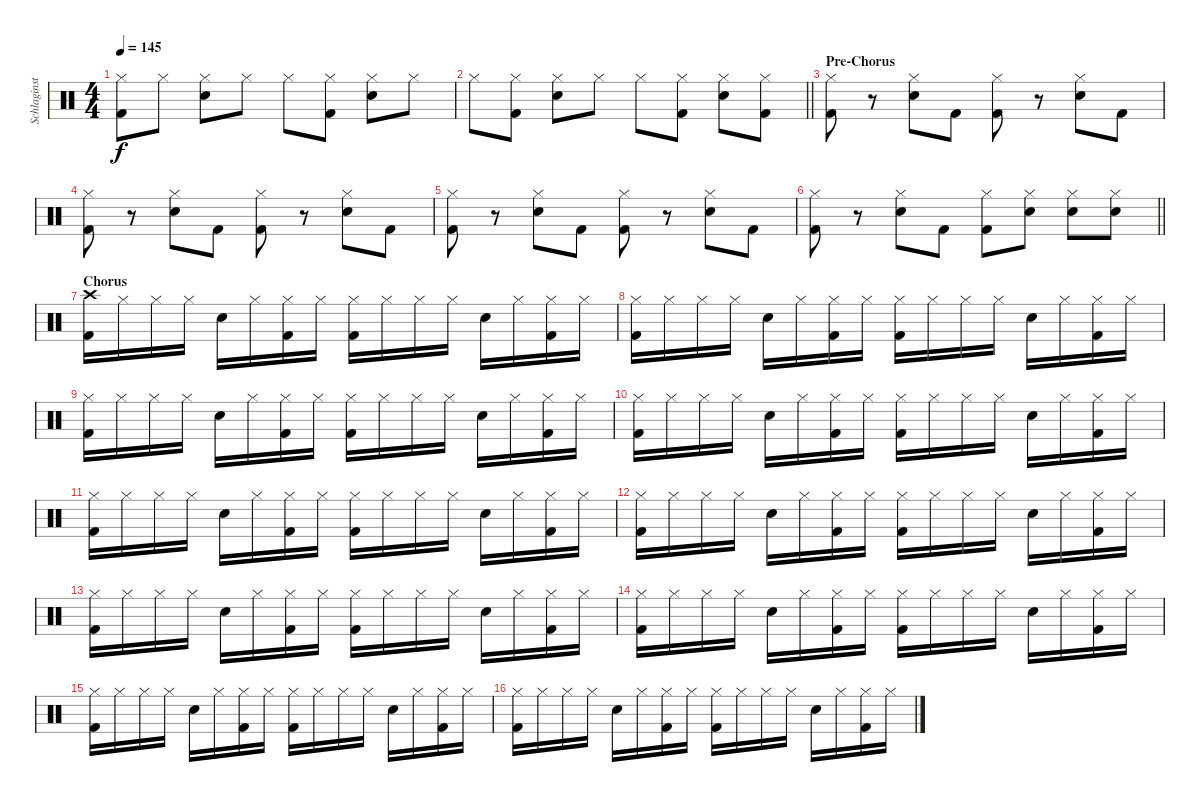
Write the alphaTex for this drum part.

\track ("Schlaginstrumente - Auswahl" "Schlaginst") {instrument percussion}
\staff {score}
\articulation defaults
\ts (4 4)
\tempo 145
\clef neutral
\ks c
("Hi-Hat (closed)" "Kick (hit) 2").8{dy f} "Hi-Hat (closed)".8 ("Hi-Hat (closed)" "Electric Snare (hit)").8 "Hi-Hat (closed)".8 "Hi-Hat (closed)".8 ("Hi-Hat (closed)" "Kick (hit) 2").8 ("Hi-Hat (closed)" "Electric Snare (hit)").8 "Hi-Hat (closed)".8 |
\barLineRight lightlight "Hi-Hat (closed)".8
("Hi-Hat (closed)" "Kick (hit) 2").8 ("Hi-Hat (closed)" "Electric Snare (hit)").8 "Hi-Hat (closed)".8 "Hi-Hat (closed)".8 ("Hi-Hat (closed)" "Kick (hit) 2").8 ("Hi-Hat (closed)" "Electric Snare (hit)").8 ("Hi-Hat (closed)" "Kick (hit) 2").8 |
\section ("" "Pre-Chorus")
("Hi-Hat (closed)" "Kick (hit) 2").8 r.8 ("Hi-Hat (closed)" "Electric Snare (hit)").8 "Kick (hit) 2".8 ("Hi-Hat (closed)" "Kick (hit) 2").8 r.8 ("Hi-Hat (closed)" "Electric Snare (hit)").8 "Kick (hit) 2".8 |
("Hi-Hat (closed)" "Kick (hit) 2").8 r.8 ("Hi-Hat (closed)" "Electric Snare (hit)").8 "Kick (hit) 2".8 ("Hi-Hat (closed)" "Kick (hit) 2").8 r.8 ("Hi-Hat (closed)" "Electric Snare (hit)").8 "Kick (hit) 2".8 |
("Hi-Hat (closed)" "Kick (hit) 2").8 r.8 ("Hi-Hat (closed)" "Electric Snare (hit)").8 "Kick (hit) 2".8 ("Hi-Hat (closed)" "Kick (hit) 2").8 r.8 ("Hi-Hat (closed)" "Electric Snare (hit)").8 "Kick (hit) 2".8 |
\barLineRight lightlight
("Hi-Hat (closed)" "Kick (hit) 2").8 r.8 ("Hi-Hat (closed)" "Electric Snare (hit)").8 "Kick (hit) 2".8 ("Hi-Hat (closed)" "Kick (hit) 2").8 ("Hi-Hat (closed)" "Electric Snare (hit)").8 ("Hi-Hat (closed)" "Electric Snare (hit)").8 ("Hi-Hat (closed)" "Electric Snare (hit)").8 |
\section ("" "Chorus")
("Crash high (hit)" "Kick (hit) 2").16 "Hi-Hat (closed)".16 "Hi-Hat (closed)".16 "Hi-Hat (closed)".16 "Electric Snare (hit)".16 "Hi-Hat (closed)".16 ("Hi-Hat (closed)" "Kick (hit) 2").16 "Hi-Hat (closed)".16 ("Hi-Hat (closed)" "Kick (hit) 2").16 "Hi-Hat (closed)".16 "Hi-Hat (closed)".16 "Hi-Hat (closed)".16 "Electric Snare (hit)".16 "Hi-Hat (closed)".16 ("Hi-Hat (closed)" "Kick (hit) 2").16 "Hi-Hat (closed)".16 |
("Hi-Hat (closed)" "Kick (hit) 2").16 "Hi-Hat (closed)".16 "Hi-Hat (closed)".16 "Hi-Hat (closed)".16 "Electric Snare (hit)".16 "Hi-Hat (closed)".16 ("Hi-Hat (closed)" "Kick (hit) 2").16 "Hi-Hat (closed)".16 ("Hi-Hat (closed)" "Kick (hit) 2").16 "Hi-Hat (closed)".16 "Hi-Hat (closed)".16 "Hi-Hat (closed)".16 "Electric Snare (hit)".16 "Hi-Hat (closed)".16 ("Hi-Hat (closed)" "Kick (hit) 2").16 "Hi-Hat (closed)".16 |
("Hi-Hat (closed)" "Kick (hit) 2").16 "Hi-Hat (closed)".16 "Hi-Hat (closed)".16 "Hi-Hat (closed)".16 "Electric Snare (hit)".16 "Hi-Hat (closed)".16 ("Hi-Hat (closed)" "Kick (hit) 2").16 "Hi-Hat (closed)".16 ("Hi-Hat (closed)" "Kick (hit) 2").16 "Hi-Hat (closed)".16 "Hi-Hat (closed)".16 "Hi-Hat (closed)".16 "Electric Snare (hit)".16 "Hi-Hat (closed)".16 ("Hi-Hat (closed)" "Kick (hit) 2").16 "Hi-Hat (closed)".16 |
("Hi-Hat (closed)" "Kick (hit) 2").16 "Hi-Hat (closed)".16 "Hi-Hat (closed)".16 "Hi-Hat (closed)".16 "Electric Snare (hit)".16 "Hi-Hat (closed)".16 ("Hi-Hat (closed)" "Kick (hit) 2").16 "Hi-Hat (closed)".16 ("Hi-Hat (closed)" "Kick (hit) 2").16 "Hi-Hat (closed)".16 "Hi-Hat (closed)".16 "Hi-Hat (closed)".16 "Electric Snare (hit)".16 "Hi-Hat (closed)".16 ("Hi-Hat (closed)" "Kick (hit) 2").16 "Hi-Hat (closed)".16 |
("Hi-Hat (closed)" "Kick (hit) 2").16 "Hi-Hat (closed)".16 "Hi-Hat (closed)".16 "Hi-Hat (closed)".16 "Electric Snare (hit)".16 "Hi-Hat (closed)".16 ("Hi-Hat (closed)" "Kick (hit) 2").16 "Hi-Hat (closed)".16 ("Hi-Hat (closed)" "Kick (hit) 2").16 "Hi-Hat (closed)".16 "Hi-Hat (closed)".16 "Hi-Hat (closed)".16 "Electric Snare (hit)".16 "Hi-Hat (closed)".16 ("Hi-Hat (closed)" "Kick (hit) 2").16 "Hi-Hat (closed)".16 |
("Hi-Hat (closed)" "Kick (hit) 2").16 "Hi-Hat (closed)".16 "Hi-Hat (closed)".16 "Hi-Hat (closed)".16 "Electric Snare (hit)".16 "Hi-Hat (closed)".16 ("Hi-Hat (closed)" "Kick (hit) 2").16 "Hi-Hat (closed)".16 ("Hi-Hat (closed)" "Kick (hit) 2").16 "Hi-Hat (closed)".16 "Hi-Hat (closed)".16 "Hi-Hat (closed)".16 "Electric Snare (hit)".16 "Hi-Hat (closed)".16 ("Hi-Hat (closed)" "Kick (hit) 2").16 "Hi-Hat (closed)".16 |
("Hi-Hat (closed)" "Kick (hit) 2").16 "Hi-Hat (closed)".16 "Hi-Hat (closed)".16 "Hi-Hat (closed)".16 "Electric Snare (hit)".16 "Hi-Hat (closed)".16 ("Hi-Hat (closed)" "Kick (hit) 2").16 "Hi-Hat (closed)".16 ("Hi-Hat (closed)" "Kick (hit) 2").16 "Hi-Hat (closed)".16 "Hi-Hat (closed)".16 "Hi-Hat (closed)".16 "Electric Snare (hit)".16 "Hi-Hat (closed)".16 ("Hi-Hat (closed)" "Kick (hit) 2").16 "Hi-Hat (closed)".16 |
("Hi-Hat (closed)" "Kick (hit) 2").16 "Hi-Hat (closed)".16 "Hi-Hat (closed)".16 "Hi-Hat (closed)".16 "Electric Snare (hit)".16 "Hi-Hat (closed)".16 ("Hi-Hat (closed)" "Kick (hit) 2").16 "Hi-Hat (closed)".16 ("Hi-Hat (closed)" "Kick (hit) 2").16 "Hi-Hat (closed)".16 "Hi-Hat (closed)".16 "Hi-Hat (closed)".16 "Electric Snare (hit)".16 "Hi-Hat (closed)".16 ("Hi-Hat (closed)" "Kick (hit) 2").16 "Hi-Hat (closed)".16 |
("Hi-Hat (closed)" "Kick (hit) 2").16 "Hi-Hat (closed)".16 "Hi-Hat (closed)".16 "Hi-Hat (closed)".16 "Electric Snare (hit)".16 "Hi-Hat (closed)".16 ("Hi-Hat (closed)" "Kick (hit) 2").16 "Hi-Hat (closed)".16 ("Hi-Hat (closed)" "Kick (hit) 2").16 "Hi-Hat (closed)".16 "Hi-Hat (closed)".16 "Hi-Hat (closed)".16 "Electric Snare (hit)".16 "Hi-Hat (closed)".16 ("Hi-Hat (closed)" "Kick (hit) 2").16 "Hi-Hat (closed)".16 |
("Hi-Hat (closed)" "Kick (hit) 2").16 "Hi-Hat (closed)".16 "Hi-Hat (closed)".16 "Hi-Hat (closed)".16 "Electric Snare (hit)".16 "Hi-Hat (closed)".16 ("Hi-Hat (closed)" "Kick (hit) 2").16 "Hi-Hat (closed)".16 ("Hi-Hat (closed)" "Kick (hit) 2").16 "Hi-Hat (closed)".16 "Hi-Hat (closed)".16 "Hi-Hat (closed)".16 "Electric Snare (hit)".16 "Hi-Hat (closed)".16 ("Hi-Hat (closed)" "Kick (hit) 2").16 "Hi-Hat (closed)".16
